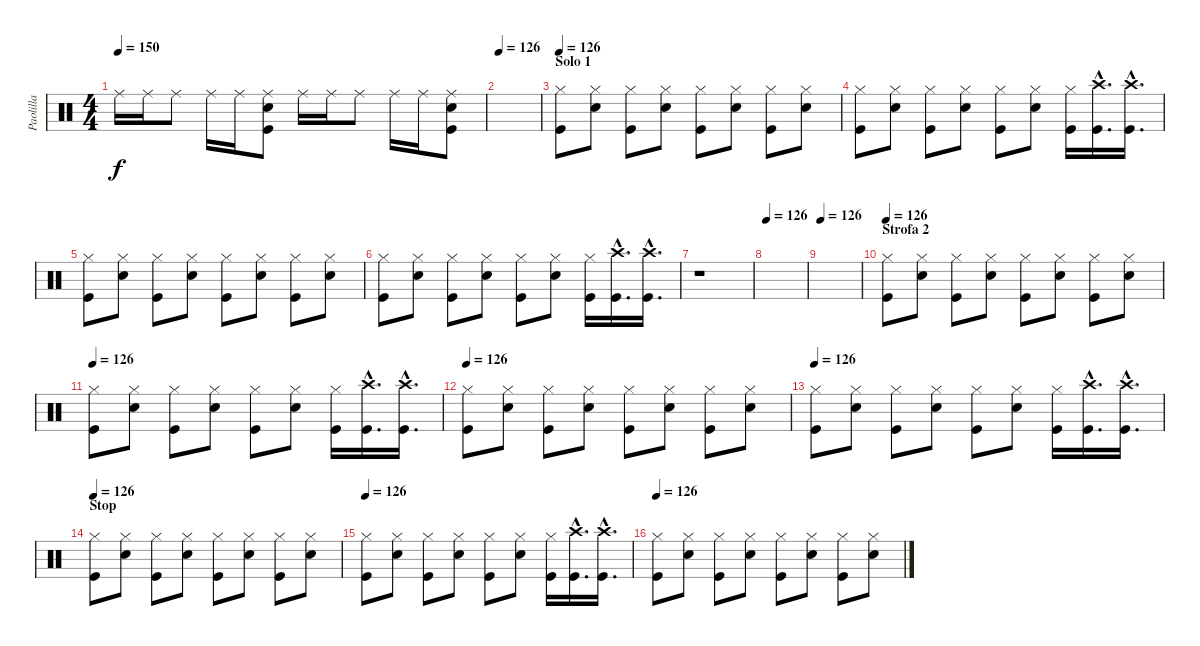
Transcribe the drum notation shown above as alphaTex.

\track ("Paolilla" "Paolilla") {instrument percussion}
\staff {score}
\articulation defaults
\ts (4 4)
\tempo 150
\clef neutral
\ks c "Ride (middle)".16{dy f} "Ride (middle)".16 "Ride (middle)".8 "Ride (middle)".16 "Ride (middle)".16
("Ride (middle)" "Snare (hit) 2" "Kick (hit)").8 "Ride (middle)".16 "Ride (middle)".16 "Ride (middle)".8 "Ride (middle)".16 "Ride (middle)".16 ("Ride (middle)" "Snare (hit) 2" "Kick (hit)").8 |
\tempo 126
|
\section ("" "Solo 1")
\tempo 126
("Hi-Hat (closed)" "Kick (hit)").8 ("Hi-Hat (closed)" "Snare (hit) 2").8 ("Hi-Hat (closed)" "Kick (hit)").8 ("Hi-Hat (closed)" "Snare (hit) 2").8 ("Hi-Hat (closed)" "Kick (hit)").8 ("Hi-Hat (closed)" "Snare (hit) 2").8 ("Hi-Hat (closed)" "Kick (hit)").8 ("Hi-Hat (closed)" "Snare (hit) 2").8 |
("Hi-Hat (closed)" "Kick (hit)").8 ("Hi-Hat (closed)" "Snare (hit) 2").8 ("Hi-Hat (closed)" "Kick (hit)").8 ("Hi-Hat (closed)" "Snare (hit) 2").8 ("Hi-Hat (closed)" "Kick (hit)").8 ("Hi-Hat (closed)" "Snare (hit) 2").8 ("Hi-Hat (closed)" "Kick (hit)").16 ("Crash high (hit)"{hac} "Kick (hit)"{hac}).16{d} ("Crash high (hit)"{hac} "Kick (hit)"{hac}).16{d} |
("Hi-Hat (closed)" "Kick (hit)").8 ("Hi-Hat (closed)" "Snare (hit) 2").8 ("Hi-Hat (closed)" "Kick (hit)").8 ("Hi-Hat (closed)" "Snare (hit) 2").8 ("Hi-Hat (closed)" "Kick (hit)").8 ("Hi-Hat (closed)" "Snare (hit) 2").8 ("Hi-Hat (closed)" "Kick (hit)").8 ("Hi-Hat (closed)" "Snare (hit) 2").8 |
("Hi-Hat (closed)" "Kick (hit)").8 ("Hi-Hat (closed)" "Snare (hit) 2").8 ("Hi-Hat (closed)" "Kick (hit)").8 ("Hi-Hat (closed)" "Snare (hit) 2").8 ("Hi-Hat (closed)" "Kick (hit)").8 ("Hi-Hat (closed)" "Snare (hit) 2").8 ("Hi-Hat (closed)" "Kick (hit)").16 ("Crash high (hit)"{hac} "Kick (hit)"{hac}).16{d} ("Crash high (hit)"{hac} "Kick (hit)"{hac}).16{d} |
r.1 |
\tempo 126
|
\tempo 126
|
\section ("" "Strofa 2")
\tempo 126
("Hi-Hat (closed)" "Kick (hit)").8 ("Hi-Hat (closed)" "Snare (hit) 2").8 ("Hi-Hat (closed)" "Kick (hit)").8 ("Hi-Hat (closed)" "Snare (hit) 2").8 ("Hi-Hat (closed)" "Kick (hit)").8 ("Hi-Hat (closed)" "Snare (hit) 2").8 ("Hi-Hat (closed)" "Kick (hit)").8 ("Hi-Hat (closed)" "Snare (hit) 2").8 |
\tempo 126
("Hi-Hat (closed)" "Kick (hit)").8 ("Hi-Hat (closed)" "Snare (hit) 2").8 ("Hi-Hat (closed)" "Kick (hit)").8 ("Hi-Hat (closed)" "Snare (hit) 2").8 ("Hi-Hat (closed)" "Kick (hit)").8 ("Hi-Hat (closed)" "Snare (hit) 2").8 ("Hi-Hat (closed)" "Kick (hit)").16 ("Crash high (hit)"{hac} "Kick (hit)"{hac}).16{d} ("Crash high (hit)"{hac} "Kick (hit)"{hac}).16{d} |
\tempo 126
("Hi-Hat (closed)" "Kick (hit)").8 ("Hi-Hat (closed)" "Snare (hit) 2").8 ("Hi-Hat (closed)" "Kick (hit)").8 ("Hi-Hat (closed)" "Snare (hit) 2").8 ("Hi-Hat (closed)" "Kick (hit)").8 ("Hi-Hat (closed)" "Snare (hit) 2").8 ("Hi-Hat (closed)" "Kick (hit)").8 ("Hi-Hat (closed)" "Snare (hit) 2").8 |
\tempo 126
("Hi-Hat (closed)" "Kick (hit)").8 ("Hi-Hat (closed)" "Snare (hit) 2").8 ("Hi-Hat (closed)" "Kick (hit)").8 ("Hi-Hat (closed)" "Snare (hit) 2").8 ("Hi-Hat (closed)" "Kick (hit)").8 ("Hi-Hat (closed)" "Snare (hit) 2").8 ("Hi-Hat (closed)" "Kick (hit)").16 ("Crash high (hit)"{hac} "Kick (hit)"{hac}).16{d} ("Crash high (hit)"{hac} "Kick (hit)"{hac}).16{d} |
\section ("" "Stop")
\tempo 126
("Hi-Hat (closed)" "Kick (hit)").8 ("Hi-Hat (closed)" "Snare (hit) 2").8 ("Hi-Hat (closed)" "Kick (hit)").8 ("Hi-Hat (closed)" "Snare (hit) 2").8 ("Hi-Hat (closed)" "Kick (hit)").8 ("Hi-Hat (closed)" "Snare (hit) 2").8 ("Hi-Hat (closed)" "Kick (hit)").8 ("Hi-Hat (closed)" "Snare (hit) 2").8 |
\tempo 126
("Hi-Hat (closed)" "Kick (hit)").8 ("Hi-Hat (closed)" "Snare (hit) 2").8 ("Hi-Hat (closed)" "Kick (hit)").8 ("Hi-Hat (closed)" "Snare (hit) 2").8 ("Hi-Hat (closed)" "Kick (hit)").8 ("Hi-Hat (closed)" "Snare (hit) 2").8 ("Hi-Hat (closed)" "Kick (hit)").16 ("Crash high (hit)"{hac} "Kick (hit)"{hac}).16{d} ("Crash high (hit)"{hac} "Kick (hit)"{hac}).16{d} |
\tempo 126
("Hi-Hat (closed)" "Kick (hit)").8 ("Hi-Hat (closed)" "Snare (hit) 2").8 ("Hi-Hat (closed)" "Kick (hit)").8 ("Hi-Hat (closed)" "Snare (hit) 2").8 ("Hi-Hat (closed)" "Kick (hit)").8 ("Hi-Hat (closed)" "Snare (hit) 2").8 ("Hi-Hat (closed)" "Kick (hit)").8 ("Hi-Hat (closed)" "Snare (hit) 2").8
